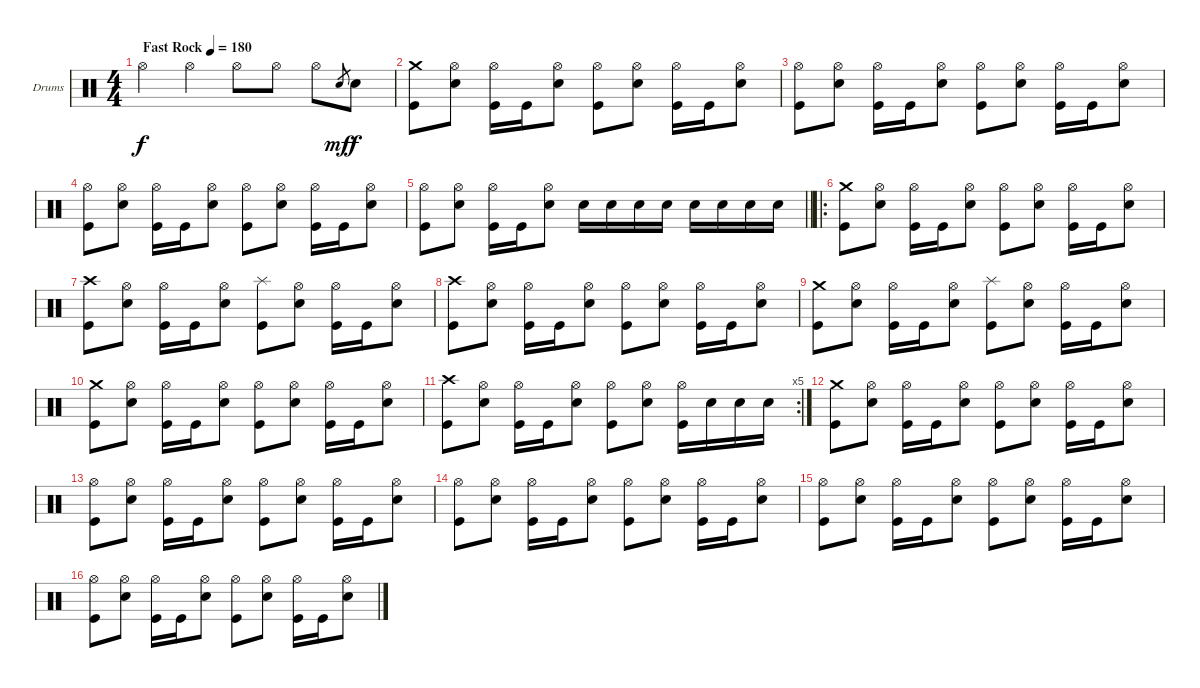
\bracketExtendMode groupsimilarinstruments
\firstSystemTrackNameOrientation horizontal
\otherSystemsTrackNameOrientation horizontal
\track ("Drumkit" "Drums") {instrument percussion}
\staff {score}
\articulation defaults
\ts (4 4)
\beaming (8 2 2 2 2)
\tempo (180 "Fast Rock")
\clef neutral
\ks c "Hi-Hat (open)".4{dy f} "Hi-Hat (open)".4 "Hi-Hat (open)".8 "Hi-Hat (open)".8 "Hi-Hat (open)".8 "Snare (hit) 2".8{gr dy mf} "Snare (hit) 2".8{dy f}
|
("Crash medium (hit)" "Kick (hit)").8 ("Hi-Hat (open)" "Snare (hit) 2").8 ("Hi-Hat (open)" "Kick (hit)").16 "Kick (hit)".16 ("Hi-Hat (open)" "Snare (hit) 2").8 ("Hi-Hat (open)" "Kick (hit)").8 ("Hi-Hat (open)" "Snare (hit) 2").8 ("Hi-Hat (open)" "Kick (hit)").16 "Kick (hit)".16 ("Hi-Hat (open)" "Snare (hit) 2").8 |
("Hi-Hat (open)" "Kick (hit)").8 ("Hi-Hat (open)" "Snare (hit) 2").8 ("Hi-Hat (open)" "Kick (hit)").16 "Kick (hit)".16 ("Hi-Hat (open)" "Snare (hit) 2").8 ("Hi-Hat (open)" "Kick (hit)").8 ("Hi-Hat (open)" "Snare (hit) 2").8 ("Hi-Hat (open)" "Kick (hit)").16 "Kick (hit)".16 ("Hi-Hat (open)" "Snare (hit) 2").8 |
("Hi-Hat (open)" "Kick (hit)").8 ("Hi-Hat (open)" "Snare (hit) 2").8 ("Hi-Hat (open)" "Kick (hit)").16 "Kick (hit)".16 ("Hi-Hat (open)" "Snare (hit) 2").8 ("Hi-Hat (open)" "Kick (hit)").8 ("Hi-Hat (open)" "Snare (hit) 2").8 ("Hi-Hat (open)" "Kick (hit)").16 "Kick (hit)".16 ("Hi-Hat (open)" "Snare (hit) 2").8 |
\barLineRight lightlight
("Hi-Hat (open)" "Kick (hit)").8 ("Hi-Hat (open)" "Snare (hit) 2").8 ("Hi-Hat (open)" "Kick (hit)").16 "Kick (hit)".16 ("Hi-Hat (open)" "Snare (hit) 2").8 "Snare (hit) 2".16 "Snare (hit) 2".16 "Snare (hit) 2".16 "Snare (hit) 2".16 "Snare (hit) 2".16 "Snare (hit) 2".16 "Snare (hit) 2".16 "Snare (hit) 2".16 |
\ro
("Crash medium (hit)" "Kick (hit)").8 ("Hi-Hat (open)" "Snare (hit) 2").8 ("Hi-Hat (open)" "Kick (hit)").16 "Kick (hit)".16 ("Hi-Hat (open)" "Snare (hit) 2").8 ("Hi-Hat (open)" "Kick (hit)").8 ("Hi-Hat (open)" "Snare (hit) 2").8 ("Hi-Hat (open)" "Kick (hit)").16 "Kick (hit)".16 ("Hi-Hat (open)" "Snare (hit) 2").8 |
("Crash high (hit)" "Kick (hit)").8 ("Hi-Hat (open)" "Snare (hit) 2").8 ("Hi-Hat (open)" "Kick (hit)").16 "Kick (hit)".16 ("Hi-Hat (open)" "Snare (hit) 2").8 ("Splash (hit)" "Kick (hit)").8 ("Hi-Hat (open)" "Snare (hit) 2").8 ("Hi-Hat (open)" "Kick (hit)").16 "Kick (hit)".16 ("Hi-Hat (open)" "Snare (hit) 2").8 |
("Crash high (hit)" "Kick (hit)").8 ("Hi-Hat (open)" "Snare (hit) 2").8 ("Hi-Hat (open)" "Kick (hit)").16 "Kick (hit)".16 ("Hi-Hat (open)" "Snare (hit) 2").8 ("Hi-Hat (open)" "Kick (hit)").8 ("Hi-Hat (open)" "Snare (hit) 2").8 ("Hi-Hat (open)" "Kick (hit)").16 "Kick (hit)".16 ("Hi-Hat (open)" "Snare (hit) 2").8 |
("Crash medium (hit)" "Kick (hit)").8 ("Hi-Hat (open)" "Snare (hit) 2").8 ("Hi-Hat (open)" "Kick (hit)").16 "Kick (hit)".16 ("Hi-Hat (open)" "Snare (hit) 2").8 ("Splash (hit)" "Kick (hit)").8 ("Hi-Hat (open)" "Snare (hit) 2").8 ("Hi-Hat (open)" "Kick (hit)").16 "Kick (hit)".16 ("Hi-Hat (open)" "Snare (hit) 2").8 |
("Crash medium (hit)" "Kick (hit)").8 ("Hi-Hat (open)" "Snare (hit) 2").8 ("Hi-Hat (open)" "Kick (hit)").16 "Kick (hit)".16 ("Hi-Hat (open)" "Snare (hit) 2").8 ("Hi-Hat (open)" "Kick (hit)").8 ("Hi-Hat (open)" "Snare (hit) 2").8 ("Hi-Hat (open)" "Kick (hit)").16 "Kick (hit)".16 ("Hi-Hat (open)" "Snare (hit) 2").8 |
\rc 5
("Crash high (hit)" "Kick (hit)").8 ("Hi-Hat (open)" "Snare (hit) 2").8 ("Hi-Hat (open)" "Kick (hit)").16 "Kick (hit)".16 ("Hi-Hat (open)" "Snare (hit) 2").8 ("Hi-Hat (open)" "Kick (hit)").8 ("Hi-Hat (open)" "Snare (hit) 2").8 ("Hi-Hat (open)" "Kick (hit)").16 "Snare (hit) 2".16 "Snare (hit) 2".16 "Snare (hit) 2".16 |
("Crash medium (hit)" "Kick (hit)").8 ("Hi-Hat (open)" "Snare (hit) 2").8 ("Hi-Hat (open)" "Kick (hit)").16 "Kick (hit)".16 ("Hi-Hat (open)" "Snare (hit) 2").8 ("Hi-Hat (open)" "Kick (hit)").8 ("Hi-Hat (open)" "Snare (hit) 2").8 ("Hi-Hat (open)" "Kick (hit)").16 "Kick (hit)".16 ("Hi-Hat (open)" "Snare (hit) 2").8 |
("Hi-Hat (open)" "Kick (hit)").8 ("Hi-Hat (open)" "Snare (hit) 2").8 ("Hi-Hat (open)" "Kick (hit)").16 "Kick (hit)".16 ("Hi-Hat (open)" "Snare (hit) 2").8 ("Hi-Hat (open)" "Kick (hit)").8 ("Hi-Hat (open)" "Snare (hit) 2").8 ("Hi-Hat (open)" "Kick (hit)").16 "Kick (hit)".16 ("Hi-Hat (open)" "Snare (hit) 2").8 |
("Hi-Hat (open)" "Kick (hit)").8 ("Hi-Hat (open)" "Snare (hit) 2").8 ("Hi-Hat (open)" "Kick (hit)").16 "Kick (hit)".16 ("Hi-Hat (open)" "Snare (hit) 2").8 ("Hi-Hat (open)" "Kick (hit)").8 ("Hi-Hat (open)" "Snare (hit) 2").8 ("Hi-Hat (open)" "Kick (hit)").16 "Kick (hit)".16 ("Hi-Hat (open)" "Snare (hit) 2").8 |
("Hi-Hat (open)" "Kick (hit)").8 ("Hi-Hat (open)" "Snare (hit) 2").8 ("Hi-Hat (open)" "Kick (hit)").16 "Kick (hit)".16 ("Hi-Hat (open)" "Snare (hit) 2").8 ("Hi-Hat (open)" "Kick (hit)").8 ("Hi-Hat (open)" "Snare (hit) 2").8 ("Hi-Hat (open)" "Kick (hit)").16 "Kick (hit)".16 ("Hi-Hat (open)" "Snare (hit) 2").8 |
("Hi-Hat (open)" "Kick (hit)").8 ("Hi-Hat (open)" "Snare (hit) 2").8 ("Hi-Hat (open)" "Kick (hit)").16 "Kick (hit)".16 ("Hi-Hat (open)" "Snare (hit) 2").8 ("Hi-Hat (open)" "Kick (hit)").8 ("Hi-Hat (open)" "Snare (hit) 2").8 ("Hi-Hat (open)" "Kick (hit)").16 "Kick (hit)".16 ("Hi-Hat (open)" "Snare (hit) 2").8
